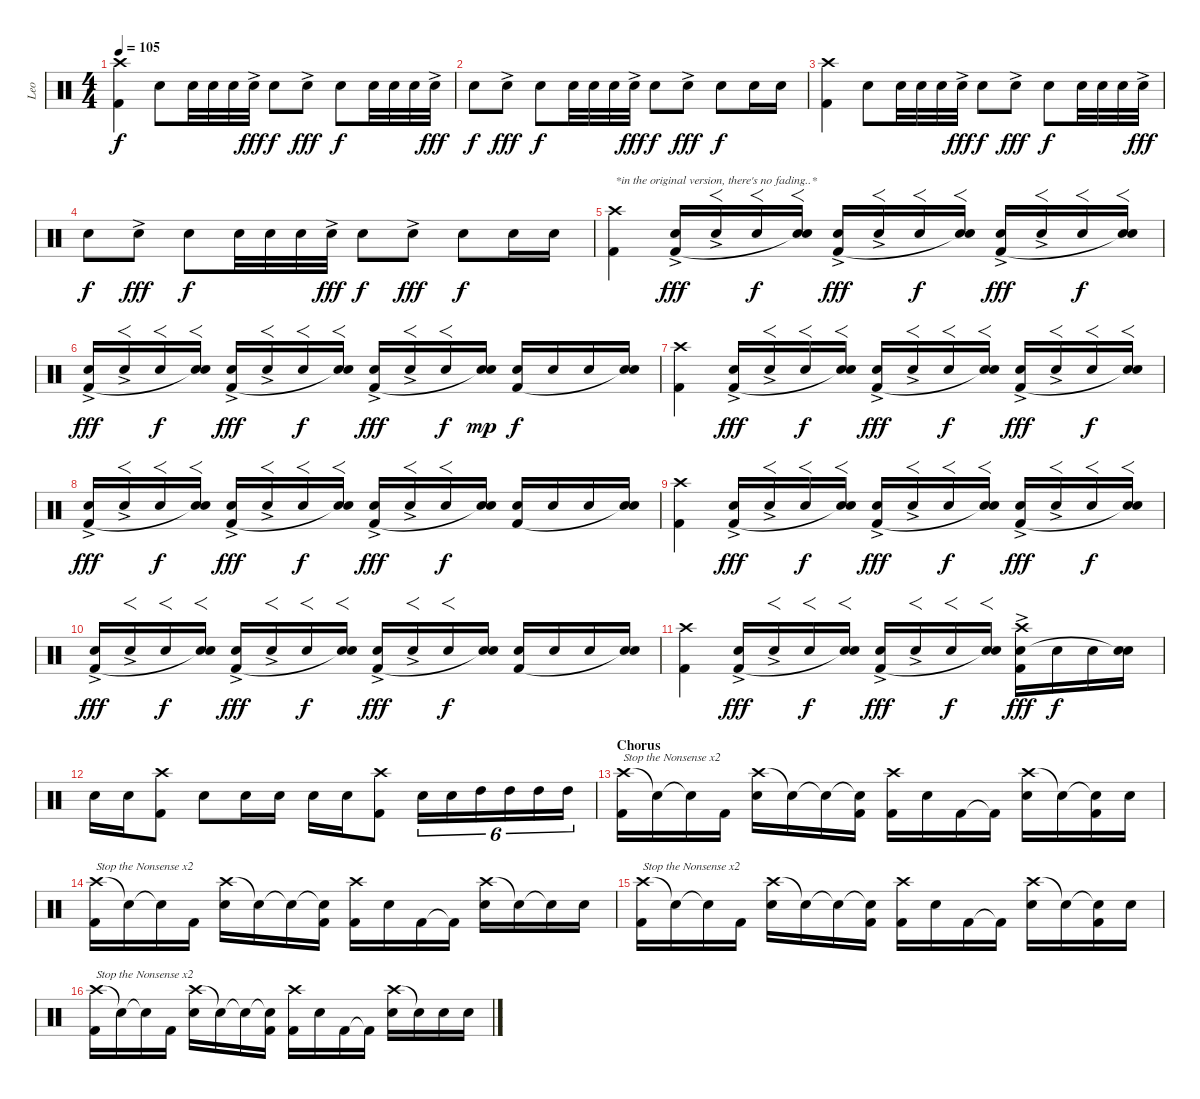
\track ("Leo" "Leo") {instrument percussion}
\staff {score}
\articulation defaults
\ts (4 4)
\tempo 105
\clef neutral
\ks c
("Crash high (hit)" "Kick (hit) 2").4{dy f} "Snare (hit) 2".8 "Snare (hit) 2".32 "Snare (hit) 2".32 "Snare (hit) 2".32 "Snare (hit) 2"{ac}.32{dy fff} "Snare (hit) 2".8{dy f} "Snare (hit) 2"{ac}.8{dy fff} "Snare (hit) 2".8{dy f} "Snare (hit) 2".32 "Snare (hit) 2".32 "Snare (hit) 2".32 "Snare (hit) 2"{ac}.32{dy fff} |
"Snare (hit) 2".8{dy f} "Snare (hit) 2"{ac}.8{dy fff} "Snare (hit) 2".8{dy f} "Snare (hit) 2".32 "Snare (hit) 2".32 "Snare (hit) 2".32 "Snare (hit) 2"{ac}.32{dy fff} "Snare (hit) 2".8{dy f} "Snare (hit) 2"{ac}.8{dy fff} "Snare (hit) 2".8{dy f} "Snare (hit) 2".16 "Snare (hit) 2".16 |
("Crash high (hit)" "Kick (hit) 2").4 "Snare (hit) 2".8 "Snare (hit) 2".32 "Snare (hit) 2".32 "Snare (hit) 2".32 "Snare (hit) 2"{ac}.32{dy fff} "Snare (hit) 2".8{dy f} "Snare (hit) 2"{ac}.8{dy fff} "Snare (hit) 2".8{dy f} "Snare (hit) 2".32 "Snare (hit) 2".32 "Snare (hit) 2".32 "Snare (hit) 2"{ac}.32{dy fff} |
"Snare (hit) 2".8{dy f} "Snare (hit) 2"{ac}.8{dy fff} "Snare (hit) 2".8{dy f} "Snare (hit) 2".32 "Snare (hit) 2".32 "Snare (hit) 2".32 "Snare (hit) 2"{ac}.32{dy fff} "Snare (hit) 2".8{dy f} "Snare (hit) 2"{ac}.8{dy fff} "Snare (hit) 2".8{dy f} "Snare (hit) 2".16 "Snare (hit) 2".16 |
("Crash high (hit)" "Kick (hit) 2").4{txt "*in the original version, there's no fading..*"} ("Snare (hit) 2"{ac} "Kick (hit) 2").16{dy fff} "Snare (hit) 2"{ac}.16{f} "Snare (hit) 2".16{f dy f} ("Snare (hit) 2" "Snare (hit)"{t}).16{f} ("Snare (hit) 2"{ac} "Kick (hit) 2").16{dy fff} "Snare (hit) 2"{ac}.16{f} "Snare (hit) 2".16{f dy f} ("Snare (hit) 2" "Snare (hit)"{t}).16{f} ("Snare (hit) 2"{ac} "Kick (hit) 2").16{dy fff} "Snare (hit) 2"{ac}.16{f} "Snare (hit) 2".16{f dy f} ("Snare (hit) 2" "Snare (hit)"{t}).16{f} |
("Snare (hit) 2"{ac} "Kick (hit) 2").16{dy fff} "Snare (hit) 2"{ac}.16{f} "Snare (hit) 2".16{f dy f} ("Snare (hit) 2" "Snare (hit)"{t}).16{f} ("Snare (hit) 2"{ac} "Kick (hit) 2").16{dy fff} "Snare (hit) 2"{ac}.16{f} "Snare (hit) 2".16{f dy f} ("Snare (hit) 2" "Snare (hit)"{t}).16{f} ("Snare (hit) 2"{ac} "Kick (hit) 2").16{dy fff} "Snare (hit) 2"{ac}.16{f} "Snare (hit) 2".16{f dy f} ("Snare (hit) 2" "Snare (hit)"{t}).16{dy mp} ("Snare (hit) 2" "Kick (hit) 2").16{dy f} "Snare (hit) 2".16 "Snare (hit) 2".16 ("Snare (hit) 2" "Snare (hit)"{t}).16 |
("Crash high (hit)" "Kick (hit) 2").4 ("Snare (hit) 2"{ac} "Kick (hit) 2").16{dy fff} "Snare (hit) 2"{ac}.16{f} "Snare (hit) 2".16{f dy f} ("Snare (hit) 2" "Snare (hit)"{t}).16{f} ("Snare (hit) 2"{ac} "Kick (hit) 2").16{dy fff} "Snare (hit) 2"{ac}.16{f} "Snare (hit) 2".16{f dy f} ("Snare (hit) 2" "Snare (hit)"{t}).16{f} ("Snare (hit) 2"{ac} "Kick (hit) 2").16{dy fff} "Snare (hit) 2"{ac}.16{f} "Snare (hit) 2".16{f dy f} ("Snare (hit) 2" "Snare (hit)"{t}).16{f} |
("Snare (hit) 2"{ac} "Kick (hit) 2").16{dy fff} "Snare (hit) 2"{ac}.16{f} "Snare (hit) 2".16{f dy f} ("Snare (hit) 2" "Snare (hit)"{t}).16{f} ("Snare (hit) 2"{ac} "Kick (hit) 2").16{dy fff} "Snare (hit) 2"{ac}.16{f} "Snare (hit) 2".16{f dy f} ("Snare (hit) 2" "Snare (hit)"{t}).16{f} ("Snare (hit) 2"{ac} "Kick (hit) 2").16{dy fff} "Snare (hit) 2"{ac}.16{f} "Snare (hit) 2".16{f dy f} ("Snare (hit) 2" "Snare (hit)"{t}).16 ("Snare (hit) 2" "Kick (hit) 2").16 "Snare (hit) 2".16 "Snare (hit) 2".16 ("Snare (hit) 2" "Snare (hit)"{t}).16 |
("Crash high (hit)" "Kick (hit) 2").4 ("Snare (hit) 2"{ac} "Kick (hit) 2").16{dy fff} "Snare (hit) 2"{ac}.16{f} "Snare (hit) 2".16{f dy f} ("Snare (hit) 2" "Snare (hit)"{t}).16{f} ("Snare (hit) 2"{ac} "Kick (hit) 2").16{dy fff} "Snare (hit) 2"{ac}.16{f} "Snare (hit) 2".16{f dy f} ("Snare (hit) 2" "Snare (hit)"{t}).16{f} ("Snare (hit) 2"{ac} "Kick (hit) 2").16{dy fff} "Snare (hit) 2"{ac}.16{f} "Snare (hit) 2".16{f dy f} ("Snare (hit) 2" "Snare (hit)"{t}).16{f} |
("Snare (hit) 2"{ac} "Kick (hit) 2").16{dy fff} "Snare (hit) 2"{ac}.16{f} "Snare (hit) 2".16{f dy f} ("Snare (hit) 2" "Snare (hit)"{t}).16{f} ("Snare (hit) 2"{ac} "Kick (hit) 2").16{dy fff} "Snare (hit) 2"{ac}.16{f} "Snare (hit) 2".16{f dy f} ("Snare (hit) 2" "Snare (hit)"{t}).16{f} ("Snare (hit) 2"{ac} "Kick (hit) 2").16{dy fff} "Snare (hit) 2"{ac}.16{f} "Snare (hit) 2".16{f dy f} ("Snare (hit) 2" "Snare (hit)"{t}).16 ("Snare (hit) 2" "Kick (hit) 2").16 "Snare (hit) 2".16 "Snare (hit) 2".16 ("Snare (hit) 2" "Snare (hit)"{t}).16 |
("Crash high (hit)" "Kick (hit) 2").4 ("Snare (hit) 2"{ac} "Kick (hit) 2").16{dy fff} "Snare (hit) 2"{ac}.16{f} "Snare (hit) 2".16{f dy f} ("Snare (hit) 2" "Snare (hit)"{t}).16{f} ("Snare (hit) 2"{ac} "Kick (hit) 2").16{dy fff} "Snare (hit) 2"{ac}.16{f} "Snare (hit) 2".16{f dy f} ("Snare (hit) 2" "Snare (hit)"{t}).16{f} ("Crash high (hit)" "Snare (hit) 2"{ac} "Kick (hit) 2").16{dy fff} "Snare (hit) 2".16{dy f} "Snare (hit) 2".16 ("Snare (hit) 2" "Snare (hit)"{t}).16 |
"Snare (hit) 2".16 "Snare (hit) 2".16 ("Crash high (hit)" "Kick (hit) 2").8 "Snare (hit) 2".8 "Snare (hit) 2".16 "Snare (hit) 2".16 "Snare (hit) 2".16 "Snare (hit) 2".16 ("Crash high (hit)" "Kick (hit) 2").8 "Snare (hit) 2".16{tu (6 4)} "Snare (hit) 2".16{tu (6 4)} "High Tom (hit)".16{tu (6 4)} "High Tom (hit)".16{tu (6 4)} "High Tom (hit)".16{tu (6 4)} "High Tom (hit)".16{tu (6 4)} |
\section ("" "Chorus")
("Crash high (hit)" "Kick (hit) 2").16{txt "Stop the Nonsense x2"} "Snare (hit)"{t}.16 "Snare (hit)"{t}.16 "Kick (hit) 2".16 ("Crash high (hit)" "Snare (hit) 2").16 "Snare (hit)"{t}.16 "Snare (hit)"{t}.16 ("Snare (hit)"{t} "Kick (hit) 2").16 ("Crash high (hit)" "Kick (hit) 2").16 "Snare (hit) 2".16 "Kick (hit) 2".16 "Kick (hit) 2"{t}.16 ("Crash high (hit)" "Snare (hit) 2").16 "Snare (hit) 2"{t}.16 ("Snare (hit)"{t} "Kick (hit) 2").16 "Snare (hit) 2".16 |
("Crash high (hit)" "Kick (hit) 2").16{txt "Stop the Nonsense x2"} "Snare (hit)"{t}.16 "Snare (hit)"{t}.16 "Kick (hit) 2".16 ("Crash high (hit)" "Snare (hit) 2").16 "Snare (hit)"{t}.16 "Snare (hit)"{t}.16 ("Snare (hit)"{t} "Kick (hit) 2").16 ("Crash high (hit)" "Kick (hit) 2").16 "Snare (hit) 2".16 "Kick (hit) 2".16 "Kick (hit) 2"{t}.16 ("Crash high (hit)" "Snare (hit) 2").16 "Snare (hit) 2"{t}.16 "Snare (hit)"{t}.16 "Snare (hit) 2".16 |
("Crash high (hit)" "Kick (hit) 2").16{txt "Stop the Nonsense x2"} "Snare (hit)"{t}.16 "Snare (hit)"{t}.16 "Kick (hit) 2".16 ("Crash high (hit)" "Snare (hit) 2").16 "Snare (hit)"{t}.16 "Snare (hit)"{t}.16 ("Snare (hit)"{t} "Kick (hit) 2").16 ("Crash high (hit)" "Kick (hit) 2").16 "Snare (hit) 2".16 "Kick (hit) 2".16 "Kick (hit) 2"{t}.16 ("Crash high (hit)" "Snare (hit) 2").16 "Snare (hit) 2"{t}.16 ("Snare (hit)"{t} "Kick (hit) 2").16 "Snare (hit) 2".16 |
("Crash high (hit)" "Kick (hit) 2").16{txt "Stop the Nonsense x2"} "Snare (hit)"{t}.16 "Snare (hit)"{t}.16 "Kick (hit) 2".16 ("Crash high (hit)" "Snare (hit) 2").16 "Snare (hit)"{t}.16 "Snare (hit)"{t}.16 ("Snare (hit)"{t} "Kick (hit) 2").16 ("Crash high (hit)" "Kick (hit) 2").16 "Snare (hit) 2".16 "Kick (hit) 2".16 "Kick (hit) 2"{t}.16 ("Crash high (hit)" "Snare (hit) 2").16 "Snare (hit) 2"{t}.16 "Snare (hit) 2".16 "Snare (hit) 2".16
